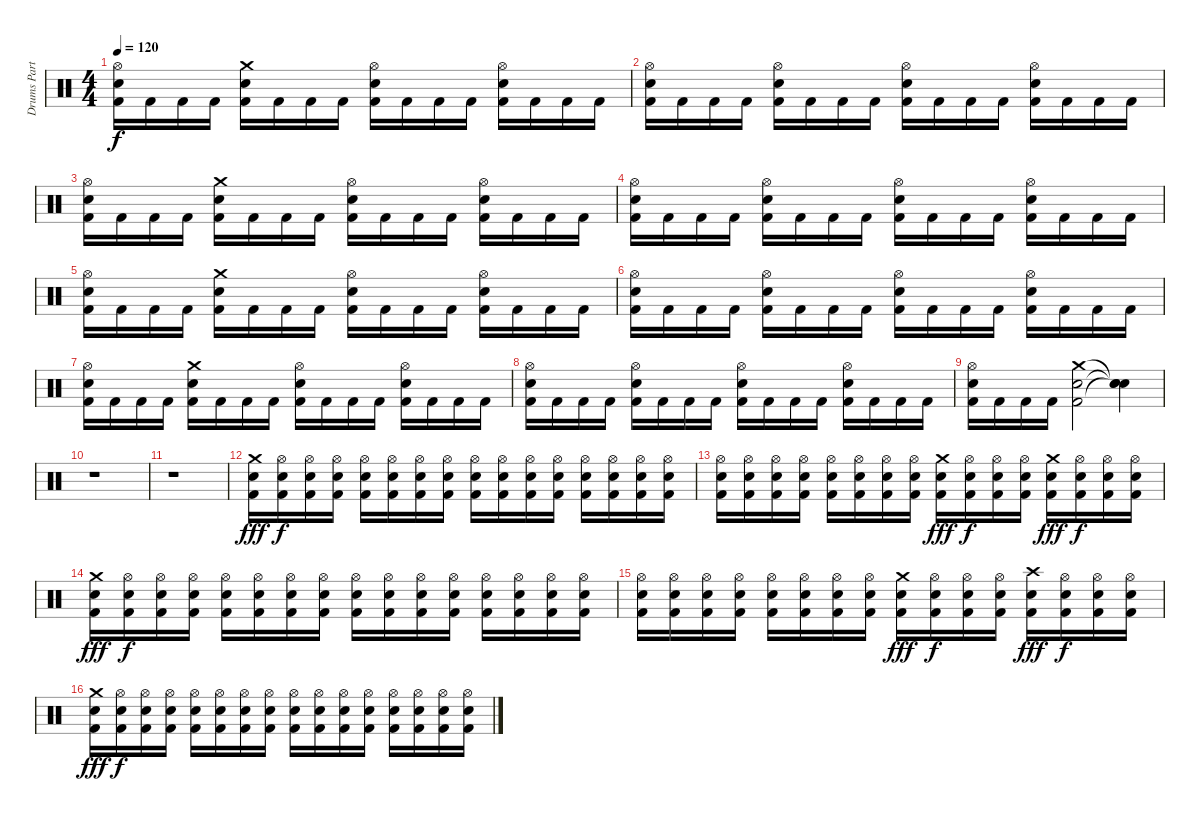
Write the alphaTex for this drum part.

\track ("Drums Part" "Drums Part") {instrument percussion}
\staff {score}
\articulation defaults
\ts (4 4)
\tempo 120
\clef neutral
\ks c
("Hi-Hat (open)" "Electric Snare (hit)" "Kick (hit) 2").16{dy f} "Kick (hit) 2".16 "Kick (hit) 2".16 "Kick (hit) 2".16 ("Crash medium (hit)" "Electric Snare (hit)" "Kick (hit) 2").16 "Kick (hit) 2".16 "Kick (hit) 2".16 "Kick (hit) 2".16 ("Hi-Hat (open)" "Electric Snare (hit)" "Kick (hit) 2").16 "Kick (hit) 2".16 "Kick (hit) 2".16 "Kick (hit) 2".16 ("Hi-Hat (open)" "Electric Snare (hit)" "Kick (hit) 2").16 "Kick (hit) 2".16 "Kick (hit) 2".16 "Kick (hit) 2".16 |
("Hi-Hat (open)" "Electric Snare (hit)" "Kick (hit) 2").16 "Kick (hit) 2".16 "Kick (hit) 2".16 "Kick (hit) 2".16 ("Hi-Hat (open)" "Electric Snare (hit)" "Kick (hit) 2").16 "Kick (hit) 2".16 "Kick (hit) 2".16 "Kick (hit) 2".16 ("Hi-Hat (open)" "Electric Snare (hit)" "Kick (hit) 2").16 "Kick (hit) 2".16 "Kick (hit) 2".16 "Kick (hit) 2".16 ("Hi-Hat (open)" "Electric Snare (hit)" "Kick (hit) 2").16 "Kick (hit) 2".16 "Kick (hit) 2".16 "Kick (hit) 2".16 |
("Hi-Hat (open)" "Electric Snare (hit)" "Kick (hit) 2").16 "Kick (hit) 2".16 "Kick (hit) 2".16 "Kick (hit) 2".16 ("Crash medium (hit)" "Electric Snare (hit)" "Kick (hit) 2").16 "Kick (hit) 2".16 "Kick (hit) 2".16 "Kick (hit) 2".16 ("Hi-Hat (open)" "Electric Snare (hit)" "Kick (hit) 2").16 "Kick (hit) 2".16 "Kick (hit) 2".16 "Kick (hit) 2".16 ("Hi-Hat (open)" "Electric Snare (hit)" "Kick (hit) 2").16 "Kick (hit) 2".16 "Kick (hit) 2".16 "Kick (hit) 2".16 |
("Hi-Hat (open)" "Electric Snare (hit)" "Kick (hit) 2").16 "Kick (hit) 2".16 "Kick (hit) 2".16 "Kick (hit) 2".16 ("Hi-Hat (open)" "Electric Snare (hit)" "Kick (hit) 2").16 "Kick (hit) 2".16 "Kick (hit) 2".16 "Kick (hit) 2".16 ("Hi-Hat (open)" "Electric Snare (hit)" "Kick (hit) 2").16 "Kick (hit) 2".16 "Kick (hit) 2".16 "Kick (hit) 2".16 ("Hi-Hat (open)" "Electric Snare (hit)" "Kick (hit) 2").16 "Kick (hit) 2".16 "Kick (hit) 2".16 "Kick (hit) 2".16 |
("Hi-Hat (open)" "Electric Snare (hit)" "Kick (hit) 2").16 "Kick (hit) 2".16 "Kick (hit) 2".16 "Kick (hit) 2".16 ("Crash medium (hit)" "Electric Snare (hit)" "Kick (hit) 2").16 "Kick (hit) 2".16 "Kick (hit) 2".16 "Kick (hit) 2".16 ("Hi-Hat (open)" "Electric Snare (hit)" "Kick (hit) 2").16 "Kick (hit) 2".16 "Kick (hit) 2".16 "Kick (hit) 2".16 ("Hi-Hat (open)" "Electric Snare (hit)" "Kick (hit) 2").16 "Kick (hit) 2".16 "Kick (hit) 2".16 "Kick (hit) 2".16 |
("Hi-Hat (open)" "Electric Snare (hit)" "Kick (hit) 2").16 "Kick (hit) 2".16 "Kick (hit) 2".16 "Kick (hit) 2".16 ("Hi-Hat (open)" "Electric Snare (hit)" "Kick (hit) 2").16 "Kick (hit) 2".16 "Kick (hit) 2".16 "Kick (hit) 2".16 ("Hi-Hat (open)" "Electric Snare (hit)" "Kick (hit) 2").16 "Kick (hit) 2".16 "Kick (hit) 2".16 "Kick (hit) 2".16 ("Hi-Hat (open)" "Electric Snare (hit)" "Kick (hit) 2").16 "Kick (hit) 2".16 "Kick (hit) 2".16 "Kick (hit) 2".16 |
("Hi-Hat (open)" "Electric Snare (hit)" "Kick (hit) 2").16 "Kick (hit) 2".16 "Kick (hit) 2".16 "Kick (hit) 2".16 ("Crash medium (hit)" "Electric Snare (hit)" "Kick (hit) 2").16 "Kick (hit) 2".16 "Kick (hit) 2".16 "Kick (hit) 2".16 ("Hi-Hat (open)" "Electric Snare (hit)" "Kick (hit) 2").16 "Kick (hit) 2".16 "Kick (hit) 2".16 "Kick (hit) 2".16 ("Hi-Hat (open)" "Electric Snare (hit)" "Kick (hit) 2").16 "Kick (hit) 2".16 "Kick (hit) 2".16 "Kick (hit) 2".16 |
("Hi-Hat (open)" "Electric Snare (hit)" "Kick (hit) 2").16 "Kick (hit) 2".16 "Kick (hit) 2".16 "Kick (hit) 2".16 ("Hi-Hat (open)" "Electric Snare (hit)" "Kick (hit) 2").16 "Kick (hit) 2".16 "Kick (hit) 2".16 "Kick (hit) 2".16 ("Hi-Hat (open)" "Electric Snare (hit)" "Kick (hit) 2").16 "Kick (hit) 2".16 "Kick (hit) 2".16 "Kick (hit) 2".16 ("Hi-Hat (open)" "Electric Snare (hit)" "Kick (hit) 2").16 "Kick (hit) 2".16 "Kick (hit) 2".16 "Kick (hit) 2".16 |
("Hi-Hat (open)" "Electric Snare (hit)" "Kick (hit) 2").16 "Kick (hit) 2".16 "Kick (hit) 2".16 "Kick (hit) 2".16 ("Crash medium (hit)" "Electric Snare (hit)" "Kick (hit) 2").2 ("Snare (hit)"{t} "Snare (hit)"{t} "Snare (hit)"{t}).4 |
r.1 |
r.1 |
("Crash medium (hit)" "Electric Snare (hit)" "Kick (hit) 2").16{dy fff} ("Hi-Hat (open)" "Electric Snare (hit)" "Kick (hit) 2").16{dy f} ("Hi-Hat (open)" "Electric Snare (hit)" "Kick (hit) 2").16 ("Hi-Hat (open)" "Electric Snare (hit)" "Kick (hit) 2").16 ("Hi-Hat (open)" "Electric Snare (hit)" "Kick (hit) 2").16 ("Hi-Hat (open)" "Electric Snare (hit)" "Kick (hit) 2").16 ("Hi-Hat (open)" "Electric Snare (hit)" "Kick (hit) 2").16 ("Hi-Hat (open)" "Electric Snare (hit)" "Kick (hit) 2").16 ("Hi-Hat (open)" "Electric Snare (hit)" "Kick (hit) 2").16 ("Hi-Hat (open)" "Electric Snare (hit)" "Kick (hit) 2").16 ("Hi-Hat (open)" "Electric Snare (hit)" "Kick (hit) 2").16 ("Hi-Hat (open)" "Electric Snare (hit)" "Kick (hit) 2").16 ("Hi-Hat (open)" "Electric Snare (hit)" "Kick (hit) 2").16 ("Hi-Hat (open)" "Electric Snare (hit)" "Kick (hit) 2").16 ("Hi-Hat (open)" "Electric Snare (hit)" "Kick (hit) 2").16 ("Hi-Hat (open)" "Electric Snare (hit)" "Kick (hit) 2").16 |
("Hi-Hat (open)" "Electric Snare (hit)" "Kick (hit) 2").16 ("Hi-Hat (open)" "Electric Snare (hit)" "Kick (hit) 2").16 ("Hi-Hat (open)" "Electric Snare (hit)" "Kick (hit) 2").16 ("Hi-Hat (open)" "Electric Snare (hit)" "Kick (hit) 2").16 ("Hi-Hat (open)" "Electric Snare (hit)" "Kick (hit) 2").16 ("Hi-Hat (open)" "Electric Snare (hit)" "Kick (hit) 2").16 ("Hi-Hat (open)" "Electric Snare (hit)" "Kick (hit) 2").16 ("Hi-Hat (open)" "Electric Snare (hit)" "Kick (hit) 2").16 ("Crash medium (hit)" "Electric Snare (hit)" "Kick (hit) 2").16{dy fff} ("Hi-Hat (open)" "Electric Snare (hit)" "Kick (hit) 2").16{dy f} ("Hi-Hat (open)" "Electric Snare (hit)" "Kick (hit) 2").16 ("Hi-Hat (open)" "Electric Snare (hit)" "Kick (hit) 2").16 ("Crash medium (hit)" "Electric Snare (hit)" "Kick (hit) 2").16{dy fff} ("Hi-Hat (open)" "Electric Snare (hit)" "Kick (hit) 2").16{dy f} ("Hi-Hat (open)" "Electric Snare (hit)" "Kick (hit) 2").16 ("Hi-Hat (open)" "Electric Snare (hit)" "Kick (hit) 2").16 |
("Crash medium (hit)" "Electric Snare (hit)" "Kick (hit) 2").16{dy fff} ("Hi-Hat (open)" "Electric Snare (hit)" "Kick (hit) 2").16{dy f} ("Hi-Hat (open)" "Electric Snare (hit)" "Kick (hit) 2").16 ("Hi-Hat (open)" "Electric Snare (hit)" "Kick (hit) 2").16 ("Hi-Hat (open)" "Electric Snare (hit)" "Kick (hit) 2").16 ("Hi-Hat (open)" "Electric Snare (hit)" "Kick (hit) 2").16 ("Hi-Hat (open)" "Electric Snare (hit)" "Kick (hit) 2").16 ("Hi-Hat (open)" "Electric Snare (hit)" "Kick (hit) 2").16 ("Hi-Hat (open)" "Electric Snare (hit)" "Kick (hit) 2").16 ("Hi-Hat (open)" "Electric Snare (hit)" "Kick (hit) 2").16 ("Hi-Hat (open)" "Electric Snare (hit)" "Kick (hit) 2").16 ("Hi-Hat (open)" "Electric Snare (hit)" "Kick (hit) 2").16 ("Hi-Hat (open)" "Electric Snare (hit)" "Kick (hit) 2").16 ("Hi-Hat (open)" "Electric Snare (hit)" "Kick (hit) 2").16 ("Hi-Hat (open)" "Electric Snare (hit)" "Kick (hit) 2").16 ("Hi-Hat (open)" "Electric Snare (hit)" "Kick (hit) 2").16 |
("Hi-Hat (open)" "Electric Snare (hit)" "Kick (hit) 2").16 ("Hi-Hat (open)" "Electric Snare (hit)" "Kick (hit) 2").16 ("Hi-Hat (open)" "Electric Snare (hit)" "Kick (hit) 2").16 ("Hi-Hat (open)" "Electric Snare (hit)" "Kick (hit) 2").16 ("Hi-Hat (open)" "Electric Snare (hit)" "Kick (hit) 2").16 ("Hi-Hat (open)" "Electric Snare (hit)" "Kick (hit) 2").16 ("Hi-Hat (open)" "Electric Snare (hit)" "Kick (hit) 2").16 ("Hi-Hat (open)" "Electric Snare (hit)" "Kick (hit) 2").16 ("Crash medium (hit)" "Electric Snare (hit)" "Kick (hit) 2").16{dy fff} ("Hi-Hat (open)" "Electric Snare (hit)" "Kick (hit) 2").16{dy f} ("Hi-Hat (open)" "Electric Snare (hit)" "Kick (hit) 2").16 ("Hi-Hat (open)" "Electric Snare (hit)" "Kick (hit) 2").16 ("Crash high (hit)" "Electric Snare (hit)" "Kick (hit) 2").16{dy fff} ("Hi-Hat (open)" "Electric Snare (hit)" "Kick (hit) 2").16{dy f} ("Hi-Hat (open)" "Electric Snare (hit)" "Kick (hit) 2").16 ("Hi-Hat (open)" "Electric Snare (hit)" "Kick (hit) 2").16 |
("Crash medium (hit)" "Electric Snare (hit)" "Kick (hit) 2").16{dy fff} ("Hi-Hat (open)" "Electric Snare (hit)" "Kick (hit) 2").16{dy f} ("Hi-Hat (open)" "Electric Snare (hit)" "Kick (hit) 2").16 ("Hi-Hat (open)" "Electric Snare (hit)" "Kick (hit) 2").16 ("Hi-Hat (open)" "Electric Snare (hit)" "Kick (hit) 2").16 ("Hi-Hat (open)" "Electric Snare (hit)" "Kick (hit) 2").16 ("Hi-Hat (open)" "Electric Snare (hit)" "Kick (hit) 2").16 ("Hi-Hat (open)" "Electric Snare (hit)" "Kick (hit) 2").16 ("Hi-Hat (open)" "Electric Snare (hit)" "Kick (hit) 2").16 ("Hi-Hat (open)" "Electric Snare (hit)" "Kick (hit) 2").16 ("Hi-Hat (open)" "Electric Snare (hit)" "Kick (hit) 2").16 ("Hi-Hat (open)" "Electric Snare (hit)" "Kick (hit) 2").16 ("Hi-Hat (open)" "Electric Snare (hit)" "Kick (hit) 2").16 ("Hi-Hat (open)" "Electric Snare (hit)" "Kick (hit) 2").16 ("Hi-Hat (open)" "Electric Snare (hit)" "Kick (hit) 2").16 ("Hi-Hat (open)" "Electric Snare (hit)" "Kick (hit) 2").16
